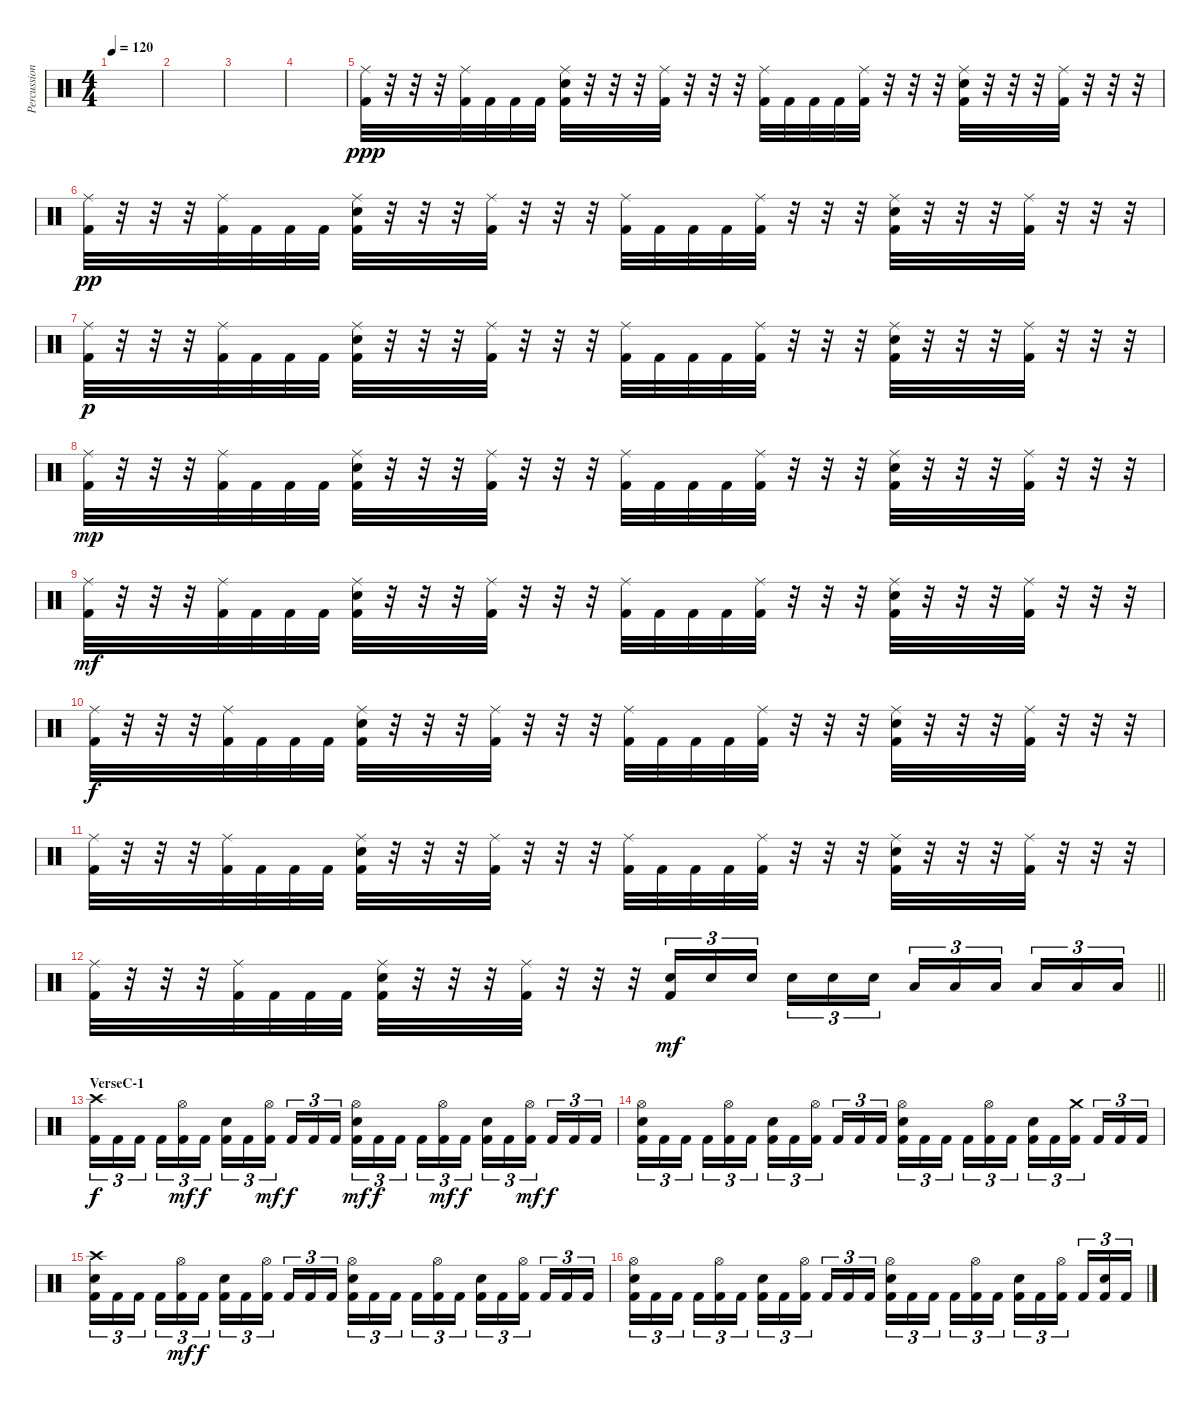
\track ("Percussion" "Percussion") {instrument percussion}
\staff {score}
\articulation defaults
\ts (4 4)
\tempo 120
\clef neutral
\ks c
|
|
|
|
("Ride (middle)" "Kick (hit) 2").32{dy ppp} r.32 r.32 r.32 ("Ride (middle)" "Kick (hit) 2").32 "Kick (hit) 2".32 "Kick (hit) 2".32 "Kick (hit) 2".32 ("Ride (middle)" "Snare (hit) 2" "Kick (hit) 2").32 r.32 r.32 r.32 ("Ride (middle)" "Kick (hit) 2").32 r.32 r.32 r.32 ("Ride (middle)" "Kick (hit) 2").32 "Kick (hit) 2".32 "Kick (hit) 2".32 "Kick (hit) 2".32 ("Ride (middle)" "Kick (hit) 2").32 r.32 r.32 r.32 ("Ride (middle)" "Snare (hit) 2" "Kick (hit) 2").32 r.32 r.32 r.32 ("Ride (middle)" "Kick (hit) 2").32 r.32 r.32 r.32 |
("Ride (middle)" "Kick (hit) 2").32{dy pp} r.32 r.32 r.32 ("Ride (middle)" "Kick (hit) 2").32 "Kick (hit) 2".32 "Kick (hit) 2".32 "Kick (hit) 2".32 ("Ride (middle)" "Snare (hit) 2" "Kick (hit) 2").32 r.32 r.32 r.32 ("Ride (middle)" "Kick (hit) 2").32 r.32 r.32 r.32 ("Ride (middle)" "Kick (hit) 2").32 "Kick (hit) 2".32 "Kick (hit) 2".32 "Kick (hit) 2".32 ("Ride (middle)" "Kick (hit) 2").32 r.32 r.32 r.32 ("Ride (middle)" "Snare (hit) 2" "Kick (hit) 2").32 r.32 r.32 r.32 ("Ride (middle)" "Kick (hit) 2").32 r.32 r.32 r.32 |
("Ride (middle)" "Kick (hit) 2").32{dy p} r.32 r.32 r.32 ("Ride (middle)" "Kick (hit) 2").32 "Kick (hit) 2".32 "Kick (hit) 2".32 "Kick (hit) 2".32 ("Ride (middle)" "Snare (hit) 2" "Kick (hit) 2").32 r.32 r.32 r.32 ("Ride (middle)" "Kick (hit) 2").32 r.32 r.32 r.32 ("Ride (middle)" "Kick (hit) 2").32 "Kick (hit) 2".32 "Kick (hit) 2".32 "Kick (hit) 2".32 ("Ride (middle)" "Kick (hit) 2").32 r.32 r.32 r.32 ("Ride (middle)" "Snare (hit) 2" "Kick (hit) 2").32 r.32 r.32 r.32 ("Ride (middle)" "Kick (hit) 2").32 r.32 r.32 r.32 |
("Ride (middle)" "Kick (hit) 2").32{dy mp} r.32 r.32 r.32 ("Ride (middle)" "Kick (hit) 2").32 "Kick (hit) 2".32 "Kick (hit) 2".32 "Kick (hit) 2".32 ("Ride (middle)" "Snare (hit) 2" "Kick (hit) 2").32 r.32 r.32 r.32 ("Ride (middle)" "Kick (hit) 2").32 r.32 r.32 r.32 ("Ride (middle)" "Kick (hit) 2").32 "Kick (hit) 2".32 "Kick (hit) 2".32 "Kick (hit) 2".32 ("Ride (middle)" "Kick (hit) 2").32 r.32 r.32 r.32 ("Ride (middle)" "Snare (hit) 2" "Kick (hit) 2").32 r.32 r.32 r.32 ("Ride (middle)" "Kick (hit) 2").32 r.32 r.32 r.32 |
("Ride (middle)" "Kick (hit) 2").32{dy mf} r.32 r.32 r.32 ("Ride (middle)" "Kick (hit) 2").32 "Kick (hit) 2".32 "Kick (hit) 2".32 "Kick (hit) 2".32 ("Ride (middle)" "Snare (hit) 2" "Kick (hit) 2").32 r.32 r.32 r.32 ("Ride (middle)" "Kick (hit) 2").32 r.32 r.32 r.32 ("Ride (middle)" "Kick (hit) 2").32 "Kick (hit) 2".32 "Kick (hit) 2".32 "Kick (hit) 2".32 ("Ride (middle)" "Kick (hit) 2").32 r.32 r.32 r.32 ("Ride (middle)" "Snare (hit) 2" "Kick (hit) 2").32 r.32 r.32 r.32 ("Ride (middle)" "Kick (hit) 2").32 r.32 r.32 r.32 |
("Ride (middle)" "Kick (hit) 2").32{dy f} r.32 r.32 r.32 ("Ride (middle)" "Kick (hit) 2").32 "Kick (hit) 2".32 "Kick (hit) 2".32 "Kick (hit) 2".32 ("Ride (middle)" "Snare (hit) 2" "Kick (hit) 2").32 r.32 r.32 r.32 ("Ride (middle)" "Kick (hit) 2").32 r.32 r.32 r.32 ("Ride (middle)" "Kick (hit) 2").32 "Kick (hit) 2".32 "Kick (hit) 2".32 "Kick (hit) 2".32 ("Ride (middle)" "Kick (hit) 2").32 r.32 r.32 r.32 ("Ride (middle)" "Snare (hit) 2" "Kick (hit) 2").32 r.32 r.32 r.32 ("Ride (middle)" "Kick (hit) 2").32 r.32 r.32 r.32 |
("Ride (middle)" "Kick (hit) 2").32 r.32 r.32 r.32 ("Ride (middle)" "Kick (hit) 2").32 "Kick (hit) 2".32 "Kick (hit) 2".32 "Kick (hit) 2".32 ("Ride (middle)" "Snare (hit) 2" "Kick (hit) 2").32 r.32 r.32 r.32 ("Ride (middle)" "Kick (hit) 2").32 r.32 r.32 r.32 ("Ride (middle)" "Kick (hit) 2").32 "Kick (hit) 2".32 "Kick (hit) 2".32 "Kick (hit) 2".32 ("Ride (middle)" "Kick (hit) 2").32 r.32 r.32 r.32 ("Ride (middle)" "Snare (hit) 2" "Kick (hit) 2").32 r.32 r.32 r.32 ("Ride (middle)" "Kick (hit) 2").32 r.32 r.32 r.32 |
\barLineRight lightlight
("Ride (middle)" "Kick (hit) 2").32 r.32 r.32 r.32 ("Ride (middle)" "Kick (hit) 2").32 "Kick (hit) 2".32 "Kick (hit) 2".32 "Kick (hit) 2".32 ("Ride (middle)" "Snare (hit) 2" "Kick (hit) 2").32 r.32 r.32 r.32 ("Ride (middle)" "Kick (hit) 2").32 r.32 r.32 r.32 ("Snare (hit) 2" "Kick (hit) 2").16{tu (3 2) dy mf} "Snare (hit) 2".16{tu (3 2)} "Snare (hit) 2".16{tu (3 2) beam splitsecondary} "Snare (hit) 2".16{tu (3 2)} "Snare (hit) 2".16{tu (3 2)} "Snare (hit) 2".16{tu (3 2)} "Low Tom (hit)".16{tu (3 2)} "Low Tom (hit)".16{tu (3 2)} "Low Tom (hit)".16{tu (3 2) beam splitsecondary} "Low Tom (hit)".16{tu (3 2)} "Low Tom (hit)".16{tu (3 2)} "Low Tom (hit)".16{tu (3 2)} |
\section ("" "VerseC-1")
("Crash high (hit)" "Kick (hit) 2").16{tu (3 2) dy f} "Kick (hit) 2".16{tu (3 2)} "Kick (hit) 2".16{tu (3 2) beam splitsecondary} "Kick (hit) 2".16{tu (3 2)} ("Hi-Hat (open)" "Kick (hit) 2").16{tu (3 2) dy mf} "Kick (hit) 2".16{tu (3 2) dy f} ("Snare (hit) 2" "Kick (hit) 2").16{tu (3 2)} "Kick (hit) 2".16{tu (3 2)} ("Hi-Hat (open)" "Kick (hit) 2").16{tu (3 2) dy mf beam splitsecondary} "Kick (hit) 2".16{tu (3 2) dy f} "Kick (hit) 2".16{tu (3 2)} "Kick (hit) 2".16{tu (3 2)} ("Hi-Hat (open)" "Snare (hit) 2" "Kick (hit) 2").16{tu (3 2) dy mf} "Kick (hit) 2".16{tu (3 2) dy f} "Kick (hit) 2".16{tu (3 2) beam splitsecondary} "Kick (hit) 2".16{tu (3 2)} ("Hi-Hat (open)" "Kick (hit) 2").16{tu (3 2) dy mf} "Kick (hit) 2".16{tu (3 2) dy f} ("Snare (hit) 2" "Kick (hit) 2").16{tu (3 2)} "Kick (hit) 2".16{tu (3 2)} ("Hi-Hat (open)" "Kick (hit) 2").16{tu (3 2) dy mf beam splitsecondary} "Kick (hit) 2".16{tu (3 2) dy f} "Kick (hit) 2".16{tu (3 2)} "Kick (hit) 2".16{tu (3 2)} |
("Hi-Hat (open)" "Snare (hit) 2" "Kick (hit) 2").16{tu (3 2)} "Kick (hit) 2".16{tu (3 2)} "Kick (hit) 2".16{tu (3 2) beam splitsecondary} "Kick (hit) 2".16{tu (3 2)} ("Hi-Hat (open)" "Kick (hit) 2").16{tu (3 2)} "Kick (hit) 2".16{tu (3 2)} ("Snare (hit) 2" "Kick (hit) 2").16{tu (3 2)} "Kick (hit) 2".16{tu (3 2)} ("Hi-Hat (open)" "Kick (hit) 2").16{tu (3 2) beam splitsecondary} "Kick (hit) 2".16{tu (3 2)} "Kick (hit) 2".16{tu (3 2)} "Kick (hit) 2".16{tu (3 2)} ("Hi-Hat (open)" "Snare (hit) 2" "Kick (hit) 2").16{tu (3 2)} "Kick (hit) 2".16{tu (3 2)} "Kick (hit) 2".16{tu (3 2) beam splitsecondary} "Kick (hit) 2".16{tu (3 2)} ("Hi-Hat (open)" "Kick (hit) 2").16{tu (3 2)} "Kick (hit) 2".16{tu (3 2)} ("Snare (hit) 2" "Kick (hit) 2").16{tu (3 2)} "Kick (hit) 2".16{tu (3 2)} ("Crash medium (hit)" "Kick (hit) 2").16{tu (3 2) beam splitsecondary} "Kick (hit) 2".16{tu (3 2)} "Kick (hit) 2".16{tu (3 2)} "Kick (hit) 2".16{tu (3 2)} |
("Crash high (hit)" "Snare (hit) 2" "Kick (hit) 2").16{tu (3 2)} "Kick (hit) 2".16{tu (3 2)} "Kick (hit) 2".16{tu (3 2) beam splitsecondary} "Kick (hit) 2".16{tu (3 2)} ("Hi-Hat (open)" "Kick (hit) 2").16{tu (3 2) dy mf} "Kick (hit) 2".16{tu (3 2) dy f} ("Snare (hit) 2" "Kick (hit) 2").16{tu (3 2)} "Kick (hit) 2".16{tu (3 2)} ("Hi-Hat (open)" "Kick (hit) 2").16{tu (3 2) beam splitsecondary} "Kick (hit) 2".16{tu (3 2)} "Kick (hit) 2".16{tu (3 2)} "Kick (hit) 2".16{tu (3 2)} ("Hi-Hat (open)" "Snare (hit) 2" "Kick (hit) 2").16{tu (3 2)} "Kick (hit) 2".16{tu (3 2)} "Kick (hit) 2".16{tu (3 2) beam splitsecondary} "Kick (hit) 2".16{tu (3 2)} ("Hi-Hat (open)" "Kick (hit) 2").16{tu (3 2)} "Kick (hit) 2".16{tu (3 2)} ("Snare (hit) 2" "Kick (hit) 2").16{tu (3 2)} "Kick (hit) 2".16{tu (3 2)} ("Hi-Hat (open)" "Kick (hit) 2").16{tu (3 2) beam splitsecondary} "Kick (hit) 2".16{tu (3 2)} "Kick (hit) 2".16{tu (3 2)} "Kick (hit) 2".16{tu (3 2)} |
("Hi-Hat (open)" "Snare (hit) 2" "Kick (hit) 2").16{tu (3 2)} "Kick (hit) 2".16{tu (3 2)} "Kick (hit) 2".16{tu (3 2) beam splitsecondary} "Kick (hit) 2".16{tu (3 2)} ("Hi-Hat (open)" "Kick (hit) 2").16{tu (3 2)} "Kick (hit) 2".16{tu (3 2)} ("Snare (hit) 2" "Kick (hit) 2").16{tu (3 2)} "Kick (hit) 2".16{tu (3 2)} ("Hi-Hat (open)" "Kick (hit) 2").16{tu (3 2) beam splitsecondary} "Kick (hit) 2".16{tu (3 2)} "Kick (hit) 2".16{tu (3 2)} "Kick (hit) 2".16{tu (3 2)} ("Hi-Hat (open)" "Snare (hit) 2" "Kick (hit) 2").16{tu (3 2)} "Kick (hit) 2".16{tu (3 2)} "Kick (hit) 2".16{tu (3 2) beam splitsecondary} "Kick (hit) 2".16{tu (3 2)} ("Hi-Hat (open)" "Kick (hit) 2").16{tu (3 2)} "Kick (hit) 2".16{tu (3 2)} ("Snare (hit) 2" "Kick (hit) 2").16{tu (3 2)} "Kick (hit) 2".16{tu (3 2)} ("Hi-Hat (open)" "Kick (hit) 2").16{tu (3 2) beam splitsecondary} "Kick (hit) 2".16{tu (3 2)} ("Snare (hit) 2" "Kick (hit) 2").16{tu (3 2)} "Kick (hit) 2".16{tu (3 2)}
